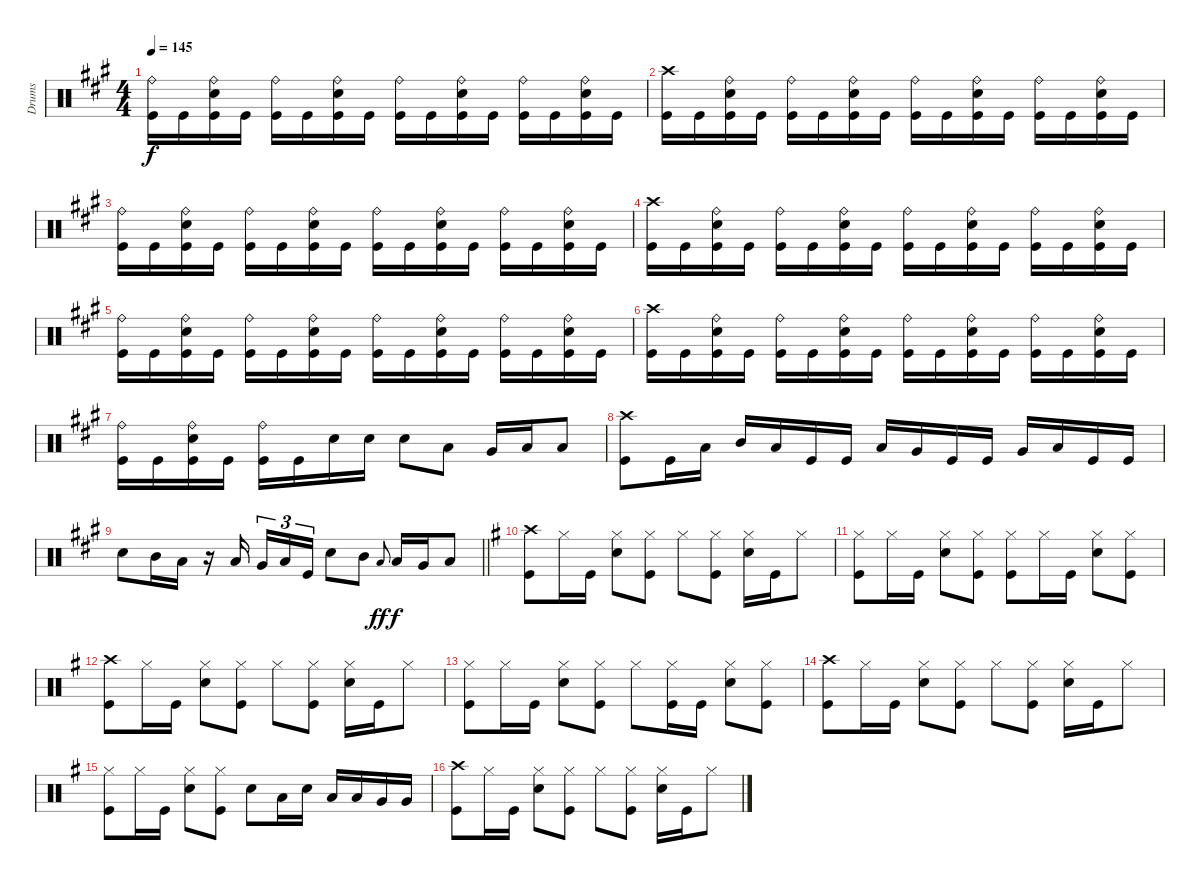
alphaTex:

\track ("Drums" "Drums") {instrument percussion}
\staff {score}
\articulation defaults
\ts (4 4)
\tempo 145
\clef neutral
\ks f#minor
("Ride (bell)" "Kick (hit)").16{dy f} "Kick (hit)".16 ("Ride (bell)" "Snare (hit) 2" "Kick (hit)").16 "Kick (hit)".16 ("Ride (bell)" "Kick (hit)").16 "Kick (hit)".16 ("Ride (bell)" "Snare (hit) 2" "Kick (hit)").16 "Kick (hit)".16 ("Ride (bell)" "Kick (hit)").16 "Kick (hit)".16 ("Ride (bell)" "Snare (hit) 2" "Kick (hit)").16 "Kick (hit)".16 ("Ride (bell)" "Kick (hit)").16 "Kick (hit)".16 ("Ride (bell)" "Snare (hit) 2" "Kick (hit)").16 "Kick (hit)".16 |
("Crash high (hit)" "Kick (hit)").16 "Kick (hit)".16 ("Ride (bell)" "Snare (hit) 2" "Kick (hit)").16 "Kick (hit)".16 ("Ride (bell)" "Kick (hit)").16 "Kick (hit)".16 ("Ride (bell)" "Snare (hit) 2" "Kick (hit)").16 "Kick (hit)".16 ("Ride (bell)" "Kick (hit)").16 "Kick (hit)".16 ("Ride (bell)" "Snare (hit) 2" "Kick (hit)").16 "Kick (hit)".16 ("Ride (bell)" "Kick (hit)").16 "Kick (hit)".16 ("Ride (bell)" "Snare (hit) 2" "Kick (hit)").16 "Kick (hit)".16 |
("Ride (bell)" "Kick (hit)").16 "Kick (hit)".16 ("Ride (bell)" "Snare (hit) 2" "Kick (hit)").16 "Kick (hit)".16 ("Ride (bell)" "Kick (hit)").16 "Kick (hit)".16 ("Ride (bell)" "Snare (hit) 2" "Kick (hit)").16 "Kick (hit)".16 ("Ride (bell)" "Kick (hit)").16 "Kick (hit)".16 ("Ride (bell)" "Snare (hit) 2" "Kick (hit)").16 "Kick (hit)".16 ("Ride (bell)" "Kick (hit)").16 "Kick (hit)".16 ("Ride (bell)" "Snare (hit) 2" "Kick (hit)").16 "Kick (hit)".16 |
("Crash high (hit)" "Kick (hit)").16 "Kick (hit)".16 ("Ride (bell)" "Snare (hit) 2" "Kick (hit)").16 "Kick (hit)".16 ("Ride (bell)" "Kick (hit)").16 "Kick (hit)".16 ("Ride (bell)" "Snare (hit) 2" "Kick (hit)").16 "Kick (hit)".16 ("Ride (bell)" "Kick (hit)").16 "Kick (hit)".16 ("Ride (bell)" "Snare (hit) 2" "Kick (hit)").16 "Kick (hit)".16 ("Ride (bell)" "Kick (hit)").16 "Kick (hit)".16 ("Ride (bell)" "Snare (hit) 2" "Kick (hit)").16 "Kick (hit)".16 |
("Ride (bell)" "Kick (hit)").16 "Kick (hit)".16 ("Ride (bell)" "Snare (hit) 2" "Kick (hit)").16 "Kick (hit)".16 ("Ride (bell)" "Kick (hit)").16 "Kick (hit)".16 ("Ride (bell)" "Snare (hit) 2" "Kick (hit)").16 "Kick (hit)".16 ("Ride (bell)" "Kick (hit)").16 "Kick (hit)".16 ("Ride (bell)" "Snare (hit) 2" "Kick (hit)").16 "Kick (hit)".16 ("Ride (bell)" "Kick (hit)").16 "Kick (hit)".16 ("Ride (bell)" "Snare (hit) 2" "Kick (hit)").16 "Kick (hit)".16 |
("Crash high (hit)" "Kick (hit)").16 "Kick (hit)".16 ("Ride (bell)" "Snare (hit) 2" "Kick (hit)").16 "Kick (hit)".16 ("Ride (bell)" "Kick (hit)").16 "Kick (hit)".16 ("Ride (bell)" "Snare (hit) 2" "Kick (hit)").16 "Kick (hit)".16 ("Ride (bell)" "Kick (hit)").16 "Kick (hit)".16 ("Ride (bell)" "Snare (hit) 2" "Kick (hit)").16 "Kick (hit)".16 ("Ride (bell)" "Kick (hit)").16 "Kick (hit)".16 ("Ride (bell)" "Snare (hit) 2" "Kick (hit)").16 "Kick (hit)".16 |
("Ride (bell)" "Kick (hit)").16 "Kick (hit)".16 ("Ride (bell)" "Snare (hit) 2" "Kick (hit)").16 "Kick (hit)".16 ("Ride (bell)" "Kick (hit)").16 "Kick (hit)".16 "Snare (hit) 2".16 "Snare (hit) 2".16 "Snare (hit) 2".8 "Low Tom (hit)".8 "Very Low Tom (hit)".16 "Low Tom (hit)".16 "Low Floor Tom (hit)".8 |
("Crash high (hit)" "Kick (hit)").8 "Kick (hit)".16 "Low Tom (hit)".16 "Mid Tom (hit)".16 "Low Tom (hit)".16 "Kick (hit)".16 "Kick (hit)".16 "Low Tom (hit)".16 "Very Low Tom (hit)".16 "Kick (hit)".16 "Kick (hit)".16 "Very Low Tom (hit)".16 "Low Floor Tom (hit)".16 "Kick (hit)".16 "Kick (hit)".16 |
\barLineRight lightlight "Snare (hit) 2".8 "Mid Tom (hit)".16 "Low Tom (hit)".16
r.16 "Low Tom (hit)".16{beam splitsecondary} "Very Low Tom (hit)".16{tu (3 2)} "Low Floor Tom (hit)".16{tu (3 2)} "Kick (hit)".16{tu (3 2)} "Snare (hit) 2".8 "Mid Tom (hit)".8 "Low Tom (hit)".8{gr onbeat dy ff} "Low Tom (hit)".16{dy f} "Very Low Tom (hit)".16 "Low Floor Tom (hit)".8 |
\ks eminor
("Crash high (hit)" "Kick (hit)").8 "Hi-Hat (closed)".16 "Kick (hit)".16 ("Hi-Hat (closed)" "Snare (hit) 2").8 ("Hi-Hat (closed)" "Kick (hit)").8 "Hi-Hat (closed)".8 ("Hi-Hat (closed)" "Kick (hit)").8 ("Hi-Hat (closed)" "Snare (hit) 2").16 "Kick (hit)".16 "Hi-Hat (closed)".8 |
("Hi-Hat (closed)" "Kick (hit)").8 "Hi-Hat (closed)".16 "Kick (hit)".16 ("Hi-Hat (closed)" "Snare (hit) 2").8 ("Hi-Hat (closed)" "Kick (hit)").8 ("Hi-Hat (closed)" "Kick (hit)").8 "Hi-Hat (closed)".16 "Kick (hit)".16 ("Hi-Hat (closed)" "Snare (hit) 2").8 ("Hi-Hat (closed)" "Kick (hit)").8 |
("Crash high (hit)" "Kick (hit)").8 "Hi-Hat (closed)".16 "Kick (hit)".16 ("Hi-Hat (closed)" "Snare (hit) 2").8 ("Hi-Hat (closed)" "Kick (hit)").8 "Hi-Hat (closed)".8 ("Hi-Hat (closed)" "Kick (hit)").8 ("Hi-Hat (closed)" "Snare (hit) 2").16 "Kick (hit)".16 "Hi-Hat (closed)".8 |
("Hi-Hat (closed)" "Kick (hit)").8 "Hi-Hat (closed)".16 "Kick (hit)".16 ("Hi-Hat (closed)" "Snare (hit) 2").8 ("Hi-Hat (closed)" "Kick (hit)").8 "Hi-Hat (closed)".8 ("Hi-Hat (closed)" "Kick (hit)").16 "Kick (hit)".16 ("Hi-Hat (closed)" "Snare (hit) 2").8 ("Hi-Hat (closed)" "Kick (hit)").8 |
("Crash high (hit)" "Kick (hit)").8 "Hi-Hat (closed)".16 "Kick (hit)".16 ("Hi-Hat (closed)" "Snare (hit) 2").8 ("Hi-Hat (closed)" "Kick (hit)").8 "Hi-Hat (closed)".8 ("Hi-Hat (closed)" "Kick (hit)").8 ("Hi-Hat (closed)" "Snare (hit) 2").16 "Kick (hit)".16 "Hi-Hat (closed)".8 |
("Hi-Hat (closed)" "Kick (hit)").8 "Hi-Hat (closed)".16 "Kick (hit)".16 ("Hi-Hat (closed)" "Snare (hit) 2").8 ("Hi-Hat (closed)" "Kick (hit)").8 "Snare (hit) 2".8 "Low Tom (hit)".16 "Snare (hit) 2".16 "Low Tom (hit)".16 "Low Tom (hit)".16 "Very Low Tom (hit)".16 "Very Low Tom (hit)".16 |
("Crash high (hit)" "Kick (hit)").8 "Hi-Hat (closed)".16 "Kick (hit)".16 ("Hi-Hat (closed)" "Snare (hit) 2").8 ("Hi-Hat (closed)" "Kick (hit)").8 "Hi-Hat (closed)".8 ("Hi-Hat (closed)" "Kick (hit)").8 ("Hi-Hat (closed)" "Snare (hit) 2").16 "Kick (hit)".16 "Hi-Hat (closed)".8
